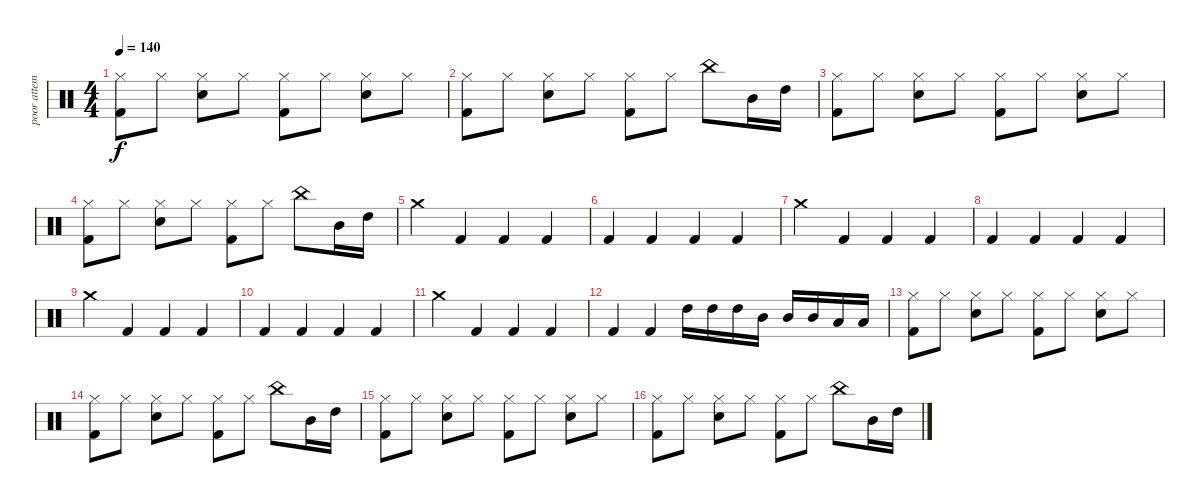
\track ("poor attempt at zac's part" "poor attem") {instrument percussion}
\staff {score}
\articulation defaults
\ts (4 4)
\tempo 140
\clef neutral
\ks c
("Kick (hit) 2" "Hi-Hat (closed)").8{dy f} "Hi-Hat (closed)".8 ("Snare (hit) 2" "Hi-Hat (closed)").8 "Hi-Hat (closed)".8 ("Kick (hit) 2" "Hi-Hat (closed)").8 "Hi-Hat (closed)".8 ("Snare (hit) 2" "Hi-Hat (closed)").8 "Hi-Hat (closed)".8 |
("Kick (hit) 2" "Hi-Hat (closed)").8 "Hi-Hat (closed)".8 ("Snare (hit) 2" "Hi-Hat (closed)").8 "Hi-Hat (closed)".8 ("Kick (hit) 2" "Hi-Hat (closed)").8 "Hi-Hat (closed)".8 "China (hit)".8 "Mid Tom (hit)".16 "High Tom (hit)".16 |
("Kick (hit) 2" "Hi-Hat (closed)").8 "Hi-Hat (closed)".8 ("Snare (hit) 2" "Hi-Hat (closed)").8 "Hi-Hat (closed)".8 ("Kick (hit) 2" "Hi-Hat (closed)").8 "Hi-Hat (closed)".8 ("Snare (hit) 2" "Hi-Hat (closed)").8 "Hi-Hat (closed)".8 |
("Kick (hit) 2" "Hi-Hat (closed)").8 "Hi-Hat (closed)".8 ("Snare (hit) 2" "Hi-Hat (closed)").8 "Hi-Hat (closed)".8 ("Kick (hit) 2" "Hi-Hat (closed)").8 "Hi-Hat (closed)".8 "China (hit)".8 "Mid Tom (hit)".16 "High Tom (hit)".16 |
"Crash medium (hit)".4 "Kick (hit) 2".4 "Kick (hit) 2".4 "Kick (hit) 2".4 |
"Kick (hit) 2".4 "Kick (hit) 2".4 "Kick (hit) 2".4 "Kick (hit) 2".4 |
"Crash medium (hit)".4 "Kick (hit) 2".4 "Kick (hit) 2".4 "Kick (hit) 2".4 |
"Kick (hit) 2".4 "Kick (hit) 2".4 "Kick (hit) 2".4 "Kick (hit) 2".4 |
"Crash medium (hit)".4 "Kick (hit) 2".4 "Kick (hit) 2".4 "Kick (hit) 2".4 |
"Kick (hit) 2".4 "Kick (hit) 2".4 "Kick (hit) 2".4 "Kick (hit) 2".4 |
"Crash medium (hit)".4 "Kick (hit) 2".4 "Kick (hit) 2".4 "Kick (hit) 2".4 |
"Kick (hit) 2".4 "Kick (hit) 2".4 "High Tom (hit)".16 "High Tom (hit)".16 "High Tom (hit)".16 "Mid Tom (hit)".16 "Mid Tom (hit)".16 "Mid Tom (hit)".16 "Low Tom (hit)".16 "Low Tom (hit)".16 |
("Kick (hit) 2" "Hi-Hat (closed)").8 "Hi-Hat (closed)".8 ("Snare (hit) 2" "Hi-Hat (closed)").8 "Hi-Hat (closed)".8 ("Kick (hit) 2" "Hi-Hat (closed)").8 "Hi-Hat (closed)".8 ("Snare (hit) 2" "Hi-Hat (closed)").8 "Hi-Hat (closed)".8 |
("Kick (hit) 2" "Hi-Hat (closed)").8 "Hi-Hat (closed)".8 ("Snare (hit) 2" "Hi-Hat (closed)").8 "Hi-Hat (closed)".8 ("Kick (hit) 2" "Hi-Hat (closed)").8 "Hi-Hat (closed)".8 "China (hit)".8 "Mid Tom (hit)".16 "High Tom (hit)".16 |
("Kick (hit) 2" "Hi-Hat (closed)").8 "Hi-Hat (closed)".8 ("Snare (hit) 2" "Hi-Hat (closed)").8 "Hi-Hat (closed)".8 ("Kick (hit) 2" "Hi-Hat (closed)").8 "Hi-Hat (closed)".8 ("Snare (hit) 2" "Hi-Hat (closed)").8 "Hi-Hat (closed)".8 |
("Kick (hit) 2" "Hi-Hat (closed)").8 "Hi-Hat (closed)".8 ("Snare (hit) 2" "Hi-Hat (closed)").8 "Hi-Hat (closed)".8 ("Kick (hit) 2" "Hi-Hat (closed)").8 "Hi-Hat (closed)".8 "China (hit)".8 "Mid Tom (hit)".16 "High Tom (hit)".16
